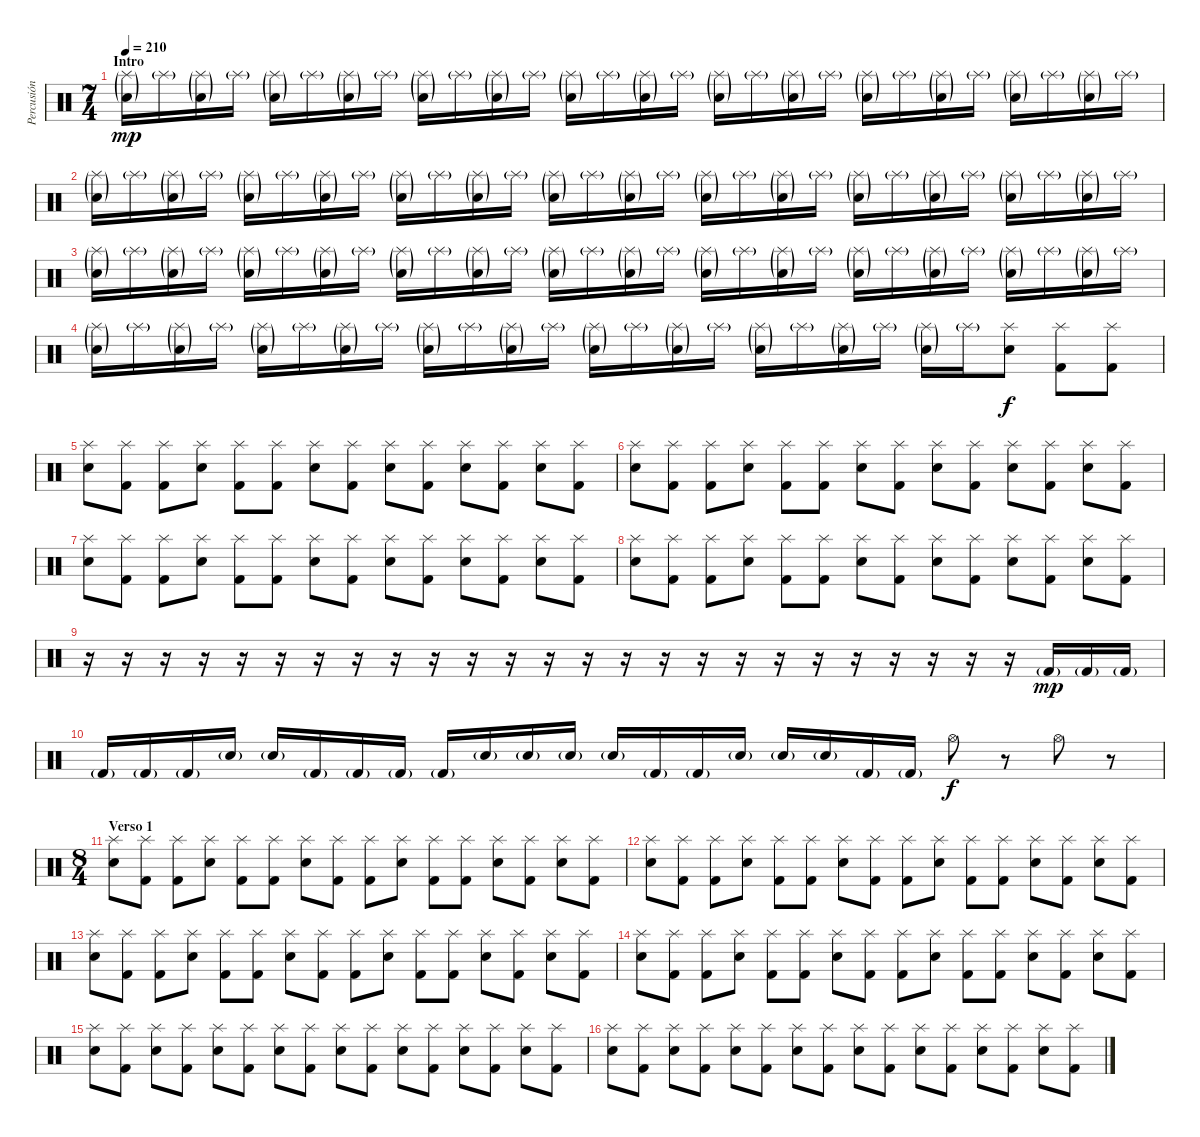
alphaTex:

\track ("Percusión" "Percusión") {instrument percussion}
\staff {score}
\articulation defaults
\ts (7 4)
\section ("" "Intro")
\tempo 210
\clef neutral
\ks c
("Splash (hit)"{g} "Electric Snare (hit)"{g}).16{dy mp volume 8} "Splash (hit)"{g}.16 ("Splash (hit)"{g} "Electric Snare (hit)"{g}).16 "Splash (hit)"{g}.16 ("Splash (hit)"{g} "Electric Snare (hit)"{g}).16 "Splash (hit)"{g}.16 ("Splash (hit)"{g} "Electric Snare (hit)"{g}).16 "Splash (hit)"{g}.16 ("Splash (hit)"{g} "Electric Snare (hit)"{g}).16 "Splash (hit)"{g}.16 ("Splash (hit)"{g} "Electric Snare (hit)"{g}).16 "Splash (hit)"{g}.16 ("Splash (hit)"{g} "Electric Snare (hit)"{g}).16 "Splash (hit)"{g}.16 ("Splash (hit)"{g} "Electric Snare (hit)"{g}).16 "Splash (hit)"{g}.16 ("Splash (hit)"{g} "Electric Snare (hit)"{g}).16 "Splash (hit)"{g}.16 ("Splash (hit)"{g} "Electric Snare (hit)"{g}).16 "Splash (hit)"{g}.16 ("Splash (hit)"{g} "Electric Snare (hit)"{g}).16 "Splash (hit)"{g}.16 ("Splash (hit)"{g} "Electric Snare (hit)"{g}).16 "Splash (hit)"{g}.16 ("Splash (hit)"{g} "Electric Snare (hit)"{g}).16 "Splash (hit)"{g}.16 ("Splash (hit)"{g} "Electric Snare (hit)"{g}).16 "Splash (hit)"{g}.16 |
("Splash (hit)"{g} "Electric Snare (hit)"{g}).16 "Splash (hit)"{g}.16 ("Splash (hit)"{g} "Electric Snare (hit)"{g}).16 "Splash (hit)"{g}.16 ("Splash (hit)"{g} "Electric Snare (hit)"{g}).16 "Splash (hit)"{g}.16 ("Splash (hit)"{g} "Electric Snare (hit)"{g}).16 "Splash (hit)"{g}.16 ("Splash (hit)"{g} "Electric Snare (hit)"{g}).16 "Splash (hit)"{g}.16 ("Splash (hit)"{g} "Electric Snare (hit)"{g}).16 "Splash (hit)"{g}.16 ("Splash (hit)"{g} "Electric Snare (hit)"{g}).16 "Splash (hit)"{g}.16 ("Splash (hit)"{g} "Electric Snare (hit)"{g}).16 "Splash (hit)"{g}.16 ("Splash (hit)"{g} "Electric Snare (hit)"{g}).16 "Splash (hit)"{g}.16 ("Splash (hit)"{g} "Electric Snare (hit)"{g}).16 "Splash (hit)"{g}.16 ("Splash (hit)"{g} "Electric Snare (hit)"{g}).16 "Splash (hit)"{g}.16 ("Splash (hit)"{g} "Electric Snare (hit)"{g}).16 "Splash (hit)"{g}.16 ("Splash (hit)"{g} "Electric Snare (hit)"{g}).16 "Splash (hit)"{g}.16 ("Splash (hit)"{g} "Electric Snare (hit)"{g}).16 "Splash (hit)"{g}.16 |
("Splash (hit)"{g} "Electric Snare (hit)"{g}).16 "Splash (hit)"{g}.16 ("Splash (hit)"{g} "Electric Snare (hit)"{g}).16 "Splash (hit)"{g}.16 ("Splash (hit)"{g} "Electric Snare (hit)"{g}).16 "Splash (hit)"{g}.16 ("Splash (hit)"{g} "Electric Snare (hit)"{g}).16 "Splash (hit)"{g}.16 ("Splash (hit)"{g} "Electric Snare (hit)"{g}).16 "Splash (hit)"{g}.16 ("Splash (hit)"{g} "Electric Snare (hit)"{g}).16 "Splash (hit)"{g}.16 ("Splash (hit)"{g} "Electric Snare (hit)"{g}).16 "Splash (hit)"{g}.16 ("Splash (hit)"{g} "Electric Snare (hit)"{g}).16 "Splash (hit)"{g}.16 ("Splash (hit)"{g} "Electric Snare (hit)"{g}).16 "Splash (hit)"{g}.16 ("Splash (hit)"{g} "Electric Snare (hit)"{g}).16 "Splash (hit)"{g}.16 ("Splash (hit)"{g} "Electric Snare (hit)"{g}).16 "Splash (hit)"{g}.16 ("Splash (hit)"{g} "Electric Snare (hit)"{g}).16 "Splash (hit)"{g}.16 ("Splash (hit)"{g} "Electric Snare (hit)"{g}).16 "Splash (hit)"{g}.16 ("Splash (hit)"{g} "Electric Snare (hit)"{g}).16 "Splash (hit)"{g}.16 |
("Splash (hit)"{g} "Electric Snare (hit)"{g}).16 "Splash (hit)"{g}.16 ("Splash (hit)"{g} "Electric Snare (hit)"{g}).16 "Splash (hit)"{g}.16 ("Splash (hit)"{g} "Electric Snare (hit)"{g}).16 "Splash (hit)"{g}.16 ("Splash (hit)"{g} "Electric Snare (hit)"{g}).16 "Splash (hit)"{g}.16 ("Splash (hit)"{g} "Electric Snare (hit)"{g}).16 "Splash (hit)"{g}.16 ("Splash (hit)"{g} "Electric Snare (hit)"{g}).16 "Splash (hit)"{g}.16 ("Splash (hit)"{g} "Electric Snare (hit)"{g}).16 "Splash (hit)"{g}.16 ("Splash (hit)"{g} "Electric Snare (hit)"{g}).16 "Splash (hit)"{g}.16 ("Splash (hit)"{g} "Electric Snare (hit)"{g}).16 "Splash (hit)"{g}.16 ("Splash (hit)"{g} "Electric Snare (hit)"{g}).16 "Splash (hit)"{g}.16 ("Splash (hit)"{g} "Electric Snare (hit)"{g}).16 "Splash (hit)"{g}.16 ("Splash (hit)" "Electric Snare (hit)").8{dy f volume 13} ("Splash (hit)" "Kick (hit) 2").8 ("Splash (hit)" "Kick (hit) 2").8 |
("Splash (hit)" "Electric Snare (hit)").8 ("Splash (hit)" "Kick (hit) 2").8 ("Splash (hit)" "Kick (hit) 2").8 ("Splash (hit)" "Electric Snare (hit)").8 ("Splash (hit)" "Kick (hit) 2").8 ("Splash (hit)" "Kick (hit) 2").8 ("Splash (hit)" "Electric Snare (hit)").8 ("Splash (hit)" "Kick (hit) 2").8 ("Splash (hit)" "Electric Snare (hit)").8 ("Splash (hit)" "Kick (hit) 2").8 ("Splash (hit)" "Electric Snare (hit)").8 ("Splash (hit)" "Kick (hit) 2").8 ("Splash (hit)" "Electric Snare (hit)").8 ("Splash (hit)" "Kick (hit) 2").8 |
("Splash (hit)" "Electric Snare (hit)").8 ("Splash (hit)" "Kick (hit) 2").8 ("Splash (hit)" "Kick (hit) 2").8 ("Splash (hit)" "Electric Snare (hit)").8 ("Splash (hit)" "Kick (hit) 2").8 ("Splash (hit)" "Kick (hit) 2").8 ("Splash (hit)" "Electric Snare (hit)").8 ("Splash (hit)" "Kick (hit) 2").8 ("Splash (hit)" "Electric Snare (hit)").8 ("Splash (hit)" "Kick (hit) 2").8 ("Splash (hit)" "Electric Snare (hit)").8 ("Splash (hit)" "Kick (hit) 2").8 ("Splash (hit)" "Electric Snare (hit)").8 ("Splash (hit)" "Kick (hit) 2").8 |
("Splash (hit)" "Electric Snare (hit)").8 ("Splash (hit)" "Kick (hit) 2").8 ("Splash (hit)" "Kick (hit) 2").8 ("Splash (hit)" "Electric Snare (hit)").8 ("Splash (hit)" "Kick (hit) 2").8 ("Splash (hit)" "Kick (hit) 2").8 ("Splash (hit)" "Electric Snare (hit)").8 ("Splash (hit)" "Kick (hit) 2").8 ("Splash (hit)" "Electric Snare (hit)").8 ("Splash (hit)" "Kick (hit) 2").8 ("Splash (hit)" "Electric Snare (hit)").8 ("Splash (hit)" "Kick (hit) 2").8 ("Splash (hit)" "Electric Snare (hit)").8 ("Splash (hit)" "Kick (hit) 2").8 |
("Splash (hit)" "Electric Snare (hit)").8 ("Splash (hit)" "Kick (hit) 2").8 ("Splash (hit)" "Kick (hit) 2").8 ("Splash (hit)" "Electric Snare (hit)").8 ("Splash (hit)" "Kick (hit) 2").8 ("Splash (hit)" "Kick (hit) 2").8 ("Splash (hit)" "Electric Snare (hit)").8 ("Splash (hit)" "Kick (hit) 2").8 ("Splash (hit)" "Electric Snare (hit)").8 ("Splash (hit)" "Kick (hit) 2").8 ("Splash (hit)" "Electric Snare (hit)").8 ("Splash (hit)" "Kick (hit) 2").8 ("Splash (hit)" "Electric Snare (hit)").8 ("Splash (hit)" "Kick (hit) 2").8 |
r.16 r.16 r.16 r.16 r.16 r.16 r.16 r.16 r.16 r.16 r.16 r.16 r.16 r.16 r.16 r.16 r.16 r.16 r.16 r.16 r.16 r.16 r.16 r.16 r.16 "Kick (hit) 2"{g}.16{dy mp} "Kick (hit) 2"{g}.16 "Kick (hit) 2"{g}.16 |
"Kick (hit) 2"{g}.16 "Kick (hit) 2"{g}.16 "Kick (hit) 2"{g}.16 "Electric Snare (hit)"{g}.16 "Electric Snare (hit)"{g}.16 "Kick (hit) 2"{g}.16 "Kick (hit) 2"{g}.16 "Kick (hit) 2"{g}.16 "Kick (hit) 2"{g}.16 "Electric Snare (hit)"{g}.16 "Electric Snare (hit)"{g}.16 "Electric Snare (hit)"{g}.16 "Electric Snare (hit)"{g}.16 "Kick (hit) 2"{g}.16 "Kick (hit) 2"{g}.16 "Electric Snare (hit)"{g}.16 "Electric Snare (hit)"{g}.16 "Electric Snare (hit)"{g}.16 "Kick (hit) 2"{g}.16 "Kick (hit) 2"{g}.16 "Hi-Hat (open)".8{dy f} r.8 "Hi-Hat (open)".8 r.8 |
\ts (8 4)
\section ("" "Verso 1")
("Splash (hit)" "Electric Snare (hit)").8 ("Splash (hit)" "Kick (hit) 2").8 ("Splash (hit)" "Kick (hit) 2").8 ("Splash (hit)" "Electric Snare (hit)").8 ("Splash (hit)" "Kick (hit) 2").8 ("Splash (hit)" "Kick (hit) 2").8 ("Splash (hit)" "Electric Snare (hit)").8 ("Splash (hit)" "Kick (hit) 2").8 ("Splash (hit)" "Kick (hit) 2").8 ("Splash (hit)" "Electric Snare (hit)").8 ("Splash (hit)" "Kick (hit) 2").8 ("Splash (hit)" "Kick (hit) 2").8 ("Splash (hit)" "Electric Snare (hit)").8 ("Splash (hit)" "Kick (hit) 2").8 ("Splash (hit)" "Electric Snare (hit)").8 ("Splash (hit)" "Kick (hit) 2").8 |
("Splash (hit)" "Electric Snare (hit)").8 ("Splash (hit)" "Kick (hit) 2").8 ("Splash (hit)" "Kick (hit) 2").8 ("Splash (hit)" "Electric Snare (hit)").8 ("Splash (hit)" "Kick (hit) 2").8 ("Splash (hit)" "Kick (hit) 2").8 ("Splash (hit)" "Electric Snare (hit)").8 ("Splash (hit)" "Kick (hit) 2").8 ("Splash (hit)" "Kick (hit) 2").8 ("Splash (hit)" "Electric Snare (hit)").8 ("Splash (hit)" "Kick (hit) 2").8 ("Splash (hit)" "Kick (hit) 2").8 ("Splash (hit)" "Electric Snare (hit)").8 ("Splash (hit)" "Kick (hit) 2").8 ("Splash (hit)" "Electric Snare (hit)").8 ("Splash (hit)" "Kick (hit) 2").8 |
("Splash (hit)" "Electric Snare (hit)").8 ("Splash (hit)" "Kick (hit) 2").8 ("Splash (hit)" "Kick (hit) 2").8 ("Splash (hit)" "Electric Snare (hit)").8 ("Splash (hit)" "Kick (hit) 2").8 ("Splash (hit)" "Kick (hit) 2").8 ("Splash (hit)" "Electric Snare (hit)").8 ("Splash (hit)" "Kick (hit) 2").8 ("Splash (hit)" "Kick (hit) 2").8 ("Splash (hit)" "Electric Snare (hit)").8 ("Splash (hit)" "Kick (hit) 2").8 ("Splash (hit)" "Kick (hit) 2").8 ("Splash (hit)" "Electric Snare (hit)").8 ("Splash (hit)" "Kick (hit) 2").8 ("Splash (hit)" "Electric Snare (hit)").8 ("Splash (hit)" "Kick (hit) 2").8 |
("Splash (hit)" "Electric Snare (hit)").8 ("Splash (hit)" "Kick (hit) 2").8 ("Splash (hit)" "Kick (hit) 2").8 ("Splash (hit)" "Electric Snare (hit)").8 ("Splash (hit)" "Kick (hit) 2").8 ("Splash (hit)" "Kick (hit) 2").8 ("Splash (hit)" "Electric Snare (hit)").8 ("Splash (hit)" "Kick (hit) 2").8 ("Splash (hit)" "Kick (hit) 2").8 ("Splash (hit)" "Electric Snare (hit)").8 ("Splash (hit)" "Kick (hit) 2").8 ("Splash (hit)" "Kick (hit) 2").8 ("Splash (hit)" "Electric Snare (hit)").8 ("Splash (hit)" "Kick (hit) 2").8 ("Splash (hit)" "Electric Snare (hit)").8 ("Splash (hit)" "Kick (hit) 2").8 |
("Splash (hit)" "Electric Snare (hit)").8 ("Splash (hit)" "Kick (hit) 2").8 ("Splash (hit)" "Electric Snare (hit)").8 ("Splash (hit)" "Kick (hit) 2").8 ("Splash (hit)" "Electric Snare (hit)").8 ("Splash (hit)" "Kick (hit) 2").8 ("Splash (hit)" "Electric Snare (hit)").8 ("Splash (hit)" "Kick (hit) 2").8 ("Splash (hit)" "Electric Snare (hit)").8 ("Splash (hit)" "Kick (hit) 2").8 ("Splash (hit)" "Electric Snare (hit)").8 ("Splash (hit)" "Kick (hit) 2").8 ("Splash (hit)" "Electric Snare (hit)").8 ("Splash (hit)" "Kick (hit) 2").8 ("Splash (hit)" "Electric Snare (hit)").8 ("Splash (hit)" "Kick (hit) 2").8 |
("Splash (hit)" "Electric Snare (hit)").8 ("Splash (hit)" "Kick (hit) 2").8 ("Splash (hit)" "Electric Snare (hit)").8 ("Splash (hit)" "Kick (hit) 2").8 ("Splash (hit)" "Electric Snare (hit)").8 ("Splash (hit)" "Kick (hit) 2").8 ("Splash (hit)" "Electric Snare (hit)").8 ("Splash (hit)" "Kick (hit) 2").8 ("Splash (hit)" "Electric Snare (hit)").8 ("Splash (hit)" "Kick (hit) 2").8 ("Splash (hit)" "Electric Snare (hit)").8 ("Splash (hit)" "Kick (hit) 2").8 ("Splash (hit)" "Electric Snare (hit)").8 ("Splash (hit)" "Kick (hit) 2").8 ("Splash (hit)" "Electric Snare (hit)").8 ("Splash (hit)" "Kick (hit) 2").8
